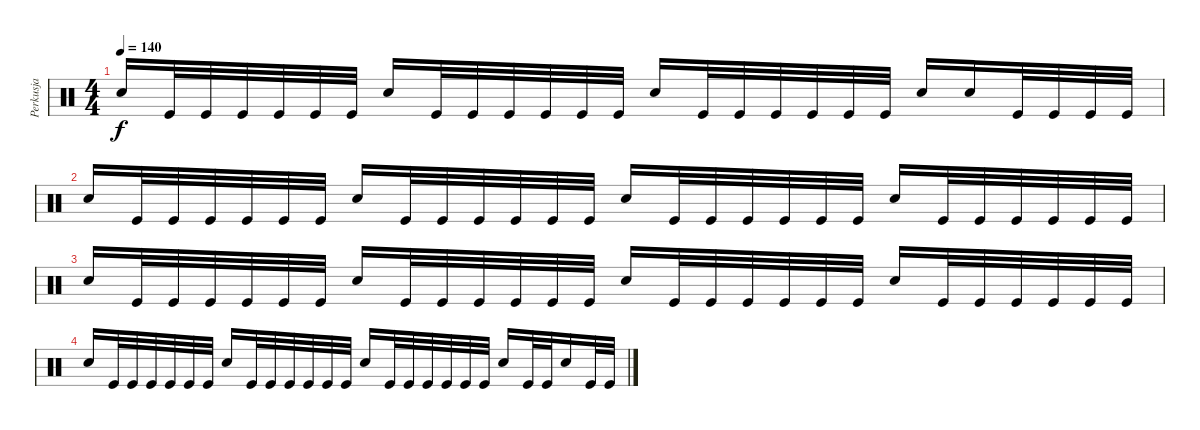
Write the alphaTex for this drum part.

\track ("Perkusja" "Perkusja") {instrument percussion}
\staff {score}
\articulation defaults
\ts (4 4)
\tempo 140
\clef neutral
\ks c "Electric Snare (hit)".16{dy f} "Kick (hit)".32 "Kick (hit)".32 "Kick (hit)".32 "Kick (hit)".32 "Kick (hit)".32 "Kick (hit)".32 "Electric Snare (hit)".16 "Kick (hit)".32 "Kick (hit)".32 "Kick (hit)".32 "Kick (hit)".32 "Kick (hit)".32 "Kick (hit)".32 "Electric Snare (hit)".16 "Kick (hit)".32 "Kick (hit)".32 "Kick (hit)".32 "Kick (hit)".32 "Kick (hit)".32 "Kick (hit)".32 "Electric Snare (hit)".16 "Electric Snare (hit)".16 "Kick (hit)".32 "Kick (hit)".32 "Kick (hit)".32 "Kick (hit)".32
|
"Electric Snare (hit)".16 "Kick (hit)".32 "Kick (hit)".32 "Kick (hit)".32 "Kick (hit)".32 "Kick (hit)".32 "Kick (hit)".32 "Electric Snare (hit)".16 "Kick (hit)".32 "Kick (hit)".32 "Kick (hit)".32 "Kick (hit)".32 "Kick (hit)".32 "Kick (hit)".32 "Electric Snare (hit)".16 "Kick (hit)".32 "Kick (hit)".32 "Kick (hit)".32 "Kick (hit)".32 "Kick (hit)".32 "Kick (hit)".32 "Electric Snare (hit)".16 "Kick (hit)".32 "Kick (hit)".32 "Kick (hit)".32 "Kick (hit)".32 "Kick (hit)".32 "Kick (hit)".32 |
"Electric Snare (hit)".16 "Kick (hit)".32 "Kick (hit)".32 "Kick (hit)".32 "Kick (hit)".32 "Kick (hit)".32 "Kick (hit)".32 "Electric Snare (hit)".16 "Kick (hit)".32 "Kick (hit)".32 "Kick (hit)".32 "Kick (hit)".32 "Kick (hit)".32 "Kick (hit)".32 "Electric Snare (hit)".16 "Kick (hit)".32 "Kick (hit)".32 "Kick (hit)".32 "Kick (hit)".32 "Kick (hit)".32 "Kick (hit)".32 "Electric Snare (hit)".16 "Kick (hit)".32 "Kick (hit)".32 "Kick (hit)".32 "Kick (hit)".32 "Kick (hit)".32 "Kick (hit)".32 |
"Electric Snare (hit)".16 "Kick (hit)".32 "Kick (hit)".32 "Kick (hit)".32 "Kick (hit)".32 "Kick (hit)".32 "Kick (hit)".32 "Electric Snare (hit)".16 "Kick (hit)".32 "Kick (hit)".32 "Kick (hit)".32 "Kick (hit)".32 "Kick (hit)".32 "Kick (hit)".32 "Electric Snare (hit)".16 "Kick (hit)".32 "Kick (hit)".32 "Kick (hit)".32 "Kick (hit)".32 "Kick (hit)".32 "Kick (hit)".32 "Electric Snare (hit)".16 "Kick (hit)".32 "Kick (hit)".32 "Electric Snare (hit)".16 "Kick (hit)".32 "Kick (hit)".32
